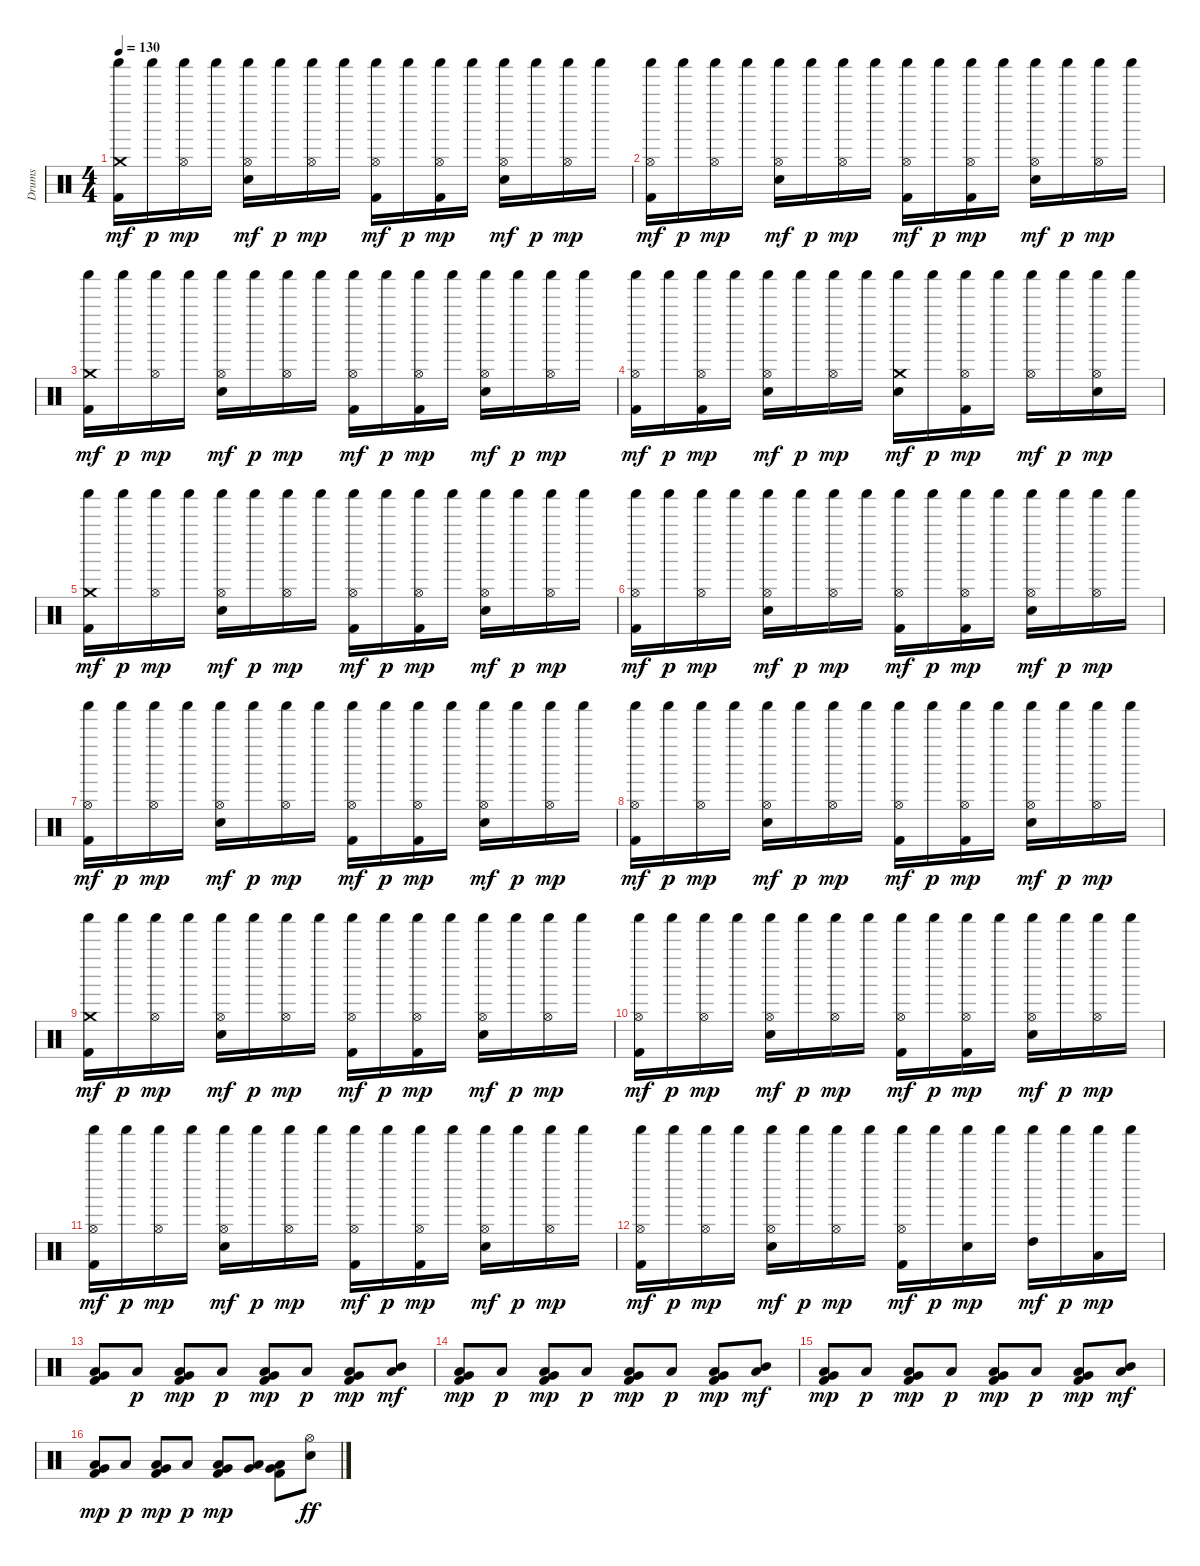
\track ("Drums" "Drums") {instrument percussion}
\staff {score}
\articulation defaults
\ts (4 4)
\tempo 130
\clef neutral
\ks c
("Kick (hit) 2" "Crash medium (hit)" "Shaker (hit)").16{dy mf} "Shaker (hit)".16{dy p} ("Hi-Hat (open)" "Shaker (hit)").16{dy mp} "Shaker (hit)".16 ("Snare (hit) 2" "Hi-Hat (open)" "Shaker (hit)").16{dy mf} "Shaker (hit)".16{dy p} ("Hi-Hat (open)" "Shaker (hit)").16{dy mp} "Shaker (hit)".16 ("Kick (hit) 2" "Hi-Hat (open)" "Shaker (hit)").16{dy mf} "Shaker (hit)".16{dy p} ("Kick (hit) 2" "Hi-Hat (open)" "Shaker (hit)").16{dy mp} "Shaker (hit)".16 ("Snare (hit) 2" "Hi-Hat (open)" "Shaker (hit)").16{dy mf} "Shaker (hit)".16{dy p} ("Hi-Hat (open)" "Shaker (hit)").16{dy mp} "Shaker (hit)".16 |
("Kick (hit) 2" "Hi-Hat (open)" "Shaker (hit)").16{dy mf} "Shaker (hit)".16{dy p} ("Hi-Hat (open)" "Shaker (hit)").16{dy mp} "Shaker (hit)".16 ("Snare (hit) 2" "Hi-Hat (open)" "Shaker (hit)").16{dy mf} "Shaker (hit)".16{dy p} ("Hi-Hat (open)" "Shaker (hit)").16{dy mp} "Shaker (hit)".16 ("Kick (hit) 2" "Hi-Hat (open)" "Shaker (hit)").16{dy mf} "Shaker (hit)".16{dy p} ("Kick (hit) 2" "Hi-Hat (open)" "Shaker (hit)").16{dy mp} "Shaker (hit)".16 ("Snare (hit) 2" "Hi-Hat (open)" "Shaker (hit)").16{dy mf} "Shaker (hit)".16{dy p} ("Hi-Hat (open)" "Shaker (hit)").16{dy mp} "Shaker (hit)".16 |
("Kick (hit) 2" "Crash medium (hit)" "Shaker (hit)").16{dy mf} "Shaker (hit)".16{dy p} ("Hi-Hat (open)" "Shaker (hit)").16{dy mp} "Shaker (hit)".16 ("Snare (hit) 2" "Hi-Hat (open)" "Shaker (hit)").16{dy mf} "Shaker (hit)".16{dy p} ("Hi-Hat (open)" "Shaker (hit)").16{dy mp} "Shaker (hit)".16 ("Kick (hit) 2" "Hi-Hat (open)" "Shaker (hit)").16{dy mf} "Shaker (hit)".16{dy p} ("Kick (hit) 2" "Hi-Hat (open)" "Shaker (hit)").16{dy mp} "Shaker (hit)".16 ("Snare (hit) 2" "Hi-Hat (open)" "Shaker (hit)").16{dy mf} "Shaker (hit)".16{dy p} ("Hi-Hat (open)" "Shaker (hit)").16{dy mp} "Shaker (hit)".16 |
("Kick (hit) 2" "Hi-Hat (open)" "Shaker (hit)").16{dy mf} "Shaker (hit)".16{dy p} ("Kick (hit) 2" "Hi-Hat (open)" "Shaker (hit)").16{dy mp} "Shaker (hit)".16 ("Snare (hit) 2" "Hi-Hat (open)" "Shaker (hit)").16{dy mf} "Shaker (hit)".16{dy p} ("Hi-Hat (open)" "Shaker (hit)").16{dy mp} "Shaker (hit)".16 ("Snare (hit) 2" "Crash medium (hit)" "Shaker (hit)").16{dy mf} "Shaker (hit)".16{dy p} ("Kick (hit) 2" "Hi-Hat (open)" "Shaker (hit)").16{dy mp} "Shaker (hit)".16 ("Hi-Hat (open)" "Shaker (hit)").16{dy mf} "Shaker (hit)".16{dy p} ("Snare (hit) 2" "Hi-Hat (open)" "Shaker (hit)").16{dy mp} "Shaker (hit)".16 |
("Kick (hit) 2" "Crash medium (hit)" "Shaker (hit)").16{dy mf} "Shaker (hit)".16{dy p} ("Hi-Hat (open)" "Shaker (hit)").16{dy mp} "Shaker (hit)".16 ("Snare (hit) 2" "Hi-Hat (open)" "Shaker (hit)").16{dy mf} "Shaker (hit)".16{dy p} ("Hi-Hat (open)" "Shaker (hit)").16{dy mp} "Shaker (hit)".16 ("Kick (hit) 2" "Hi-Hat (open)" "Shaker (hit)").16{dy mf} "Shaker (hit)".16{dy p} ("Kick (hit) 2" "Hi-Hat (open)" "Shaker (hit)").16{dy mp} "Shaker (hit)".16 ("Snare (hit) 2" "Hi-Hat (open)" "Shaker (hit)").16{dy mf} "Shaker (hit)".16{dy p} ("Hi-Hat (open)" "Shaker (hit)").16{dy mp} "Shaker (hit)".16 |
("Kick (hit) 2" "Hi-Hat (open)" "Shaker (hit)").16{dy mf} "Shaker (hit)".16{dy p} ("Hi-Hat (open)" "Shaker (hit)").16{dy mp} "Shaker (hit)".16 ("Snare (hit) 2" "Hi-Hat (open)" "Shaker (hit)").16{dy mf} "Shaker (hit)".16{dy p} ("Hi-Hat (open)" "Shaker (hit)").16{dy mp} "Shaker (hit)".16 ("Kick (hit) 2" "Hi-Hat (open)" "Shaker (hit)").16{dy mf} "Shaker (hit)".16{dy p} ("Kick (hit) 2" "Hi-Hat (open)" "Shaker (hit)").16{dy mp} "Shaker (hit)".16 ("Snare (hit) 2" "Hi-Hat (open)" "Shaker (hit)").16{dy mf} "Shaker (hit)".16{dy p} ("Hi-Hat (open)" "Shaker (hit)").16{dy mp} "Shaker (hit)".16 |
("Kick (hit) 2" "Hi-Hat (open)" "Shaker (hit)").16{dy mf} "Shaker (hit)".16{dy p} ("Hi-Hat (open)" "Shaker (hit)").16{dy mp} "Shaker (hit)".16 ("Snare (hit) 2" "Hi-Hat (open)" "Shaker (hit)").16{dy mf} "Shaker (hit)".16{dy p} ("Hi-Hat (open)" "Shaker (hit)").16{dy mp} "Shaker (hit)".16 ("Kick (hit) 2" "Hi-Hat (open)" "Shaker (hit)").16{dy mf} "Shaker (hit)".16{dy p} ("Kick (hit) 2" "Hi-Hat (open)" "Shaker (hit)").16{dy mp} "Shaker (hit)".16 ("Snare (hit) 2" "Hi-Hat (open)" "Shaker (hit)").16{dy mf} "Shaker (hit)".16{dy p} ("Hi-Hat (open)" "Shaker (hit)").16{dy mp} "Shaker (hit)".16 |
("Kick (hit) 2" "Hi-Hat (open)" "Shaker (hit)").16{dy mf} "Shaker (hit)".16{dy p} ("Hi-Hat (open)" "Shaker (hit)").16{dy mp} "Shaker (hit)".16 ("Snare (hit) 2" "Hi-Hat (open)" "Shaker (hit)").16{dy mf} "Shaker (hit)".16{dy p} ("Hi-Hat (open)" "Shaker (hit)").16{dy mp} "Shaker (hit)".16 ("Kick (hit) 2" "Hi-Hat (open)" "Shaker (hit)").16{dy mf} "Shaker (hit)".16{dy p} ("Kick (hit) 2" "Hi-Hat (open)" "Shaker (hit)").16{dy mp} "Shaker (hit)".16 ("Snare (hit) 2" "Hi-Hat (open)" "Shaker (hit)").16{dy mf} "Shaker (hit)".16{dy p} ("Hi-Hat (open)" "Shaker (hit)").16{dy mp} "Shaker (hit)".16 |
("Kick (hit) 2" "Crash medium (hit)" "Shaker (hit)").16{dy mf} "Shaker (hit)".16{dy p} ("Hi-Hat (open)" "Shaker (hit)").16{dy mp} "Shaker (hit)".16 ("Snare (hit) 2" "Hi-Hat (open)" "Shaker (hit)").16{dy mf} "Shaker (hit)".16{dy p} ("Hi-Hat (open)" "Shaker (hit)").16{dy mp} "Shaker (hit)".16 ("Kick (hit) 2" "Hi-Hat (open)" "Shaker (hit)").16{dy mf} "Shaker (hit)".16{dy p} ("Kick (hit) 2" "Hi-Hat (open)" "Shaker (hit)").16{dy mp} "Shaker (hit)".16 ("Snare (hit) 2" "Hi-Hat (open)" "Shaker (hit)").16{dy mf} "Shaker (hit)".16{dy p} ("Hi-Hat (open)" "Shaker (hit)").16{dy mp} "Shaker (hit)".16 |
("Kick (hit) 2" "Hi-Hat (open)" "Shaker (hit)").16{dy mf} "Shaker (hit)".16{dy p} ("Hi-Hat (open)" "Shaker (hit)").16{dy mp} "Shaker (hit)".16 ("Snare (hit) 2" "Hi-Hat (open)" "Shaker (hit)").16{dy mf} "Shaker (hit)".16{dy p} ("Hi-Hat (open)" "Shaker (hit)").16{dy mp} "Shaker (hit)".16 ("Kick (hit) 2" "Hi-Hat (open)" "Shaker (hit)").16{dy mf} "Shaker (hit)".16{dy p} ("Kick (hit) 2" "Hi-Hat (open)" "Shaker (hit)").16{dy mp} "Shaker (hit)".16 ("Snare (hit) 2" "Hi-Hat (open)" "Shaker (hit)").16{dy mf} "Shaker (hit)".16{dy p} ("Hi-Hat (open)" "Shaker (hit)").16{dy mp} "Shaker (hit)".16 |
("Kick (hit) 2" "Hi-Hat (open)" "Shaker (hit)").16{dy mf} "Shaker (hit)".16{dy p} ("Hi-Hat (open)" "Shaker (hit)").16{dy mp} "Shaker (hit)".16 ("Snare (hit) 2" "Hi-Hat (open)" "Shaker (hit)").16{dy mf} "Shaker (hit)".16{dy p} ("Hi-Hat (open)" "Shaker (hit)").16{dy mp} "Shaker (hit)".16 ("Kick (hit) 2" "Hi-Hat (open)" "Shaker (hit)").16{dy mf} "Shaker (hit)".16{dy p} ("Kick (hit) 2" "Hi-Hat (open)" "Shaker (hit)").16{dy mp} "Shaker (hit)".16 ("Snare (hit) 2" "Hi-Hat (open)" "Shaker (hit)").16{dy mf} "Shaker (hit)".16{dy p} ("Hi-Hat (open)" "Shaker (hit)").16{dy mp} "Shaker (hit)".16 |
("Kick (hit) 2" "Hi-Hat (open)" "Shaker (hit)").16{dy mf} "Shaker (hit)".16{dy p} ("Hi-Hat (open)" "Shaker (hit)").16{dy mp} "Shaker (hit)".16 ("Snare (hit) 2" "Hi-Hat (open)" "Shaker (hit)").16{dy mf} "Shaker (hit)".16{dy p} ("Hi-Hat (open)" "Shaker (hit)").16{dy mp} "Shaker (hit)".16 ("Kick (hit) 2" "Hi-Hat (open)" "Shaker (hit)").16{dy mf} "Shaker (hit)".16{dy p} ("Snare (hit) 2" "Shaker (hit)").16{dy mp} "Shaker (hit)".16 ("High Tom (hit)" "Shaker (hit)").16{dy mf} "Shaker (hit)".16{dy p} ("Low Tom (hit)" "Shaker (hit)").16{dy mp} "Shaker (hit)".16 |
("Kick (hit) 2" "Low Floor Tom (hit)" "Very Low Tom (hit)").8 "Low Floor Tom (hit)".8{dy p} ("Kick (hit) 2" "Low Floor Tom (hit)" "Very Low Tom (hit)").8{dy mp} "Low Floor Tom (hit)".8{dy p} ("Kick (hit) 2" "Low Floor Tom (hit)" "Very Low Tom (hit)").8{dy mp} "Low Floor Tom (hit)".8{dy p} ("Kick (hit) 2" "Low Floor Tom (hit)" "Very Low Tom (hit)").8{dy mp} ("Low Tom (hit)" "Mid Tom (hit)").8{dy mf} |
("Kick (hit) 2" "Low Floor Tom (hit)" "Very Low Tom (hit)").8{dy mp} "Low Floor Tom (hit)".8{dy p} ("Kick (hit) 2" "Low Floor Tom (hit)" "Very Low Tom (hit)").8{dy mp} "Low Floor Tom (hit)".8{dy p} ("Kick (hit) 2" "Low Floor Tom (hit)" "Very Low Tom (hit)").8{dy mp} "Low Floor Tom (hit)".8{dy p} ("Kick (hit) 2" "Low Floor Tom (hit)" "Very Low Tom (hit)").8{dy mp} ("Low Tom (hit)" "Mid Tom (hit)").8{dy mf} |
("Kick (hit) 2" "Low Floor Tom (hit)" "Very Low Tom (hit)").8{dy mp} "Low Floor Tom (hit)".8{dy p} ("Kick (hit) 2" "Low Floor Tom (hit)" "Very Low Tom (hit)").8{dy mp} "Low Floor Tom (hit)".8{dy p} ("Kick (hit) 2" "Low Floor Tom (hit)" "Very Low Tom (hit)").8{dy mp} "Low Floor Tom (hit)".8{dy p} ("Kick (hit) 2" "Low Floor Tom (hit)" "Very Low Tom (hit)").8{dy mp} ("Low Tom (hit)" "Mid Tom (hit)").8{dy mf} |
("Kick (hit) 2" "Low Floor Tom (hit)" "Very Low Tom (hit)").8{dy mp} "Low Floor Tom (hit)".8{dy p} ("Kick (hit) 2" "Low Floor Tom (hit)" "Very Low Tom (hit)").8{dy mp} "Low Floor Tom (hit)".8{dy p} ("Kick (hit) 2" "Low Floor Tom (hit)" "Very Low Tom (hit)").8{dy mp} ("Low Floor Tom (hit)" "Very Low Tom (hit)").8 ("Kick (hit) 2" "Low Floor Tom (hit)" "Very Low Tom (hit)").8 ("Snare (hit) 2" "Hi-Hat (open)").8{dy ff}
